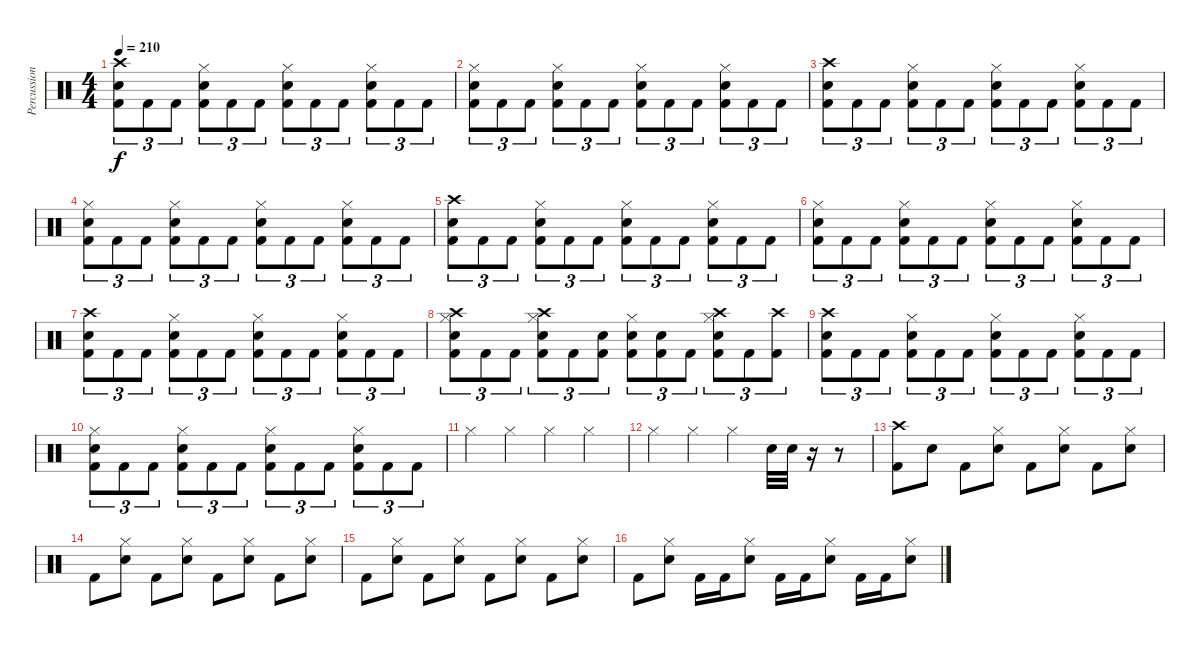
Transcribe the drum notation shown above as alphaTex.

\track ("Percussion" "Percussion") {instrument percussion}
\staff {score}
\articulation defaults
\ts (4 4)
\tempo 210
\clef neutral
\ks c
("Crash high (hit)" "Electric Snare (hit)" "Kick (hit) 2").8{tu (3 2) dy f} "Kick (hit) 2".8{tu (3 2)} "Kick (hit) 2".8{tu (3 2)} ("Hi-Hat (closed)" "Electric Snare (hit)" "Kick (hit) 2").8{tu (3 2)} "Kick (hit) 2".8{tu (3 2)} "Kick (hit) 2".8{tu (3 2)} ("Hi-Hat (closed)" "Electric Snare (hit)" "Kick (hit) 2").8{tu (3 2)} "Kick (hit) 2".8{tu (3 2)} "Kick (hit) 2".8{tu (3 2)} ("Hi-Hat (closed)" "Electric Snare (hit)" "Kick (hit) 2").8{tu (3 2)} "Kick (hit) 2".8{tu (3 2)} "Kick (hit) 2".8{tu (3 2)} |
("Hi-Hat (closed)" "Electric Snare (hit)" "Kick (hit) 2").8{tu (3 2)} "Kick (hit) 2".8{tu (3 2)} "Kick (hit) 2".8{tu (3 2)} ("Hi-Hat (closed)" "Electric Snare (hit)" "Kick (hit) 2").8{tu (3 2)} "Kick (hit) 2".8{tu (3 2)} "Kick (hit) 2".8{tu (3 2)} ("Hi-Hat (closed)" "Electric Snare (hit)" "Kick (hit) 2").8{tu (3 2)} "Kick (hit) 2".8{tu (3 2)} "Kick (hit) 2".8{tu (3 2)} ("Hi-Hat (closed)" "Electric Snare (hit)" "Kick (hit) 2").8{tu (3 2)} "Kick (hit) 2".8{tu (3 2)} "Kick (hit) 2".8{tu (3 2)} |
("Crash high (hit)" "Electric Snare (hit)" "Kick (hit) 2").8{tu (3 2)} "Kick (hit) 2".8{tu (3 2)} "Kick (hit) 2".8{tu (3 2)} ("Hi-Hat (closed)" "Electric Snare (hit)" "Kick (hit) 2").8{tu (3 2)} "Kick (hit) 2".8{tu (3 2)} "Kick (hit) 2".8{tu (3 2)} ("Hi-Hat (closed)" "Electric Snare (hit)" "Kick (hit) 2").8{tu (3 2)} "Kick (hit) 2".8{tu (3 2)} "Kick (hit) 2".8{tu (3 2)} ("Hi-Hat (closed)" "Electric Snare (hit)" "Kick (hit) 2").8{tu (3 2)} "Kick (hit) 2".8{tu (3 2)} "Kick (hit) 2".8{tu (3 2)} |
("Hi-Hat (closed)" "Electric Snare (hit)" "Kick (hit) 2").8{tu (3 2)} "Kick (hit) 2".8{tu (3 2)} "Kick (hit) 2".8{tu (3 2)} ("Hi-Hat (closed)" "Electric Snare (hit)" "Kick (hit) 2").8{tu (3 2)} "Kick (hit) 2".8{tu (3 2)} "Kick (hit) 2".8{tu (3 2)} ("Hi-Hat (closed)" "Electric Snare (hit)" "Kick (hit) 2").8{tu (3 2)} "Kick (hit) 2".8{tu (3 2)} "Kick (hit) 2".8{tu (3 2)} ("Hi-Hat (closed)" "Electric Snare (hit)" "Kick (hit) 2").8{tu (3 2)} "Kick (hit) 2".8{tu (3 2)} "Kick (hit) 2".8{tu (3 2)} |
("Crash high (hit)" "Electric Snare (hit)" "Kick (hit) 2").8{tu (3 2)} "Kick (hit) 2".8{tu (3 2)} "Kick (hit) 2".8{tu (3 2)} ("Hi-Hat (closed)" "Electric Snare (hit)" "Kick (hit) 2").8{tu (3 2)} "Kick (hit) 2".8{tu (3 2)} "Kick (hit) 2".8{tu (3 2)} ("Hi-Hat (closed)" "Electric Snare (hit)" "Kick (hit) 2").8{tu (3 2)} "Kick (hit) 2".8{tu (3 2)} "Kick (hit) 2".8{tu (3 2)} ("Hi-Hat (closed)" "Electric Snare (hit)" "Kick (hit) 2").8{tu (3 2)} "Kick (hit) 2".8{tu (3 2)} "Kick (hit) 2".8{tu (3 2)} |
("Hi-Hat (closed)" "Electric Snare (hit)" "Kick (hit) 2").8{tu (3 2)} "Kick (hit) 2".8{tu (3 2)} "Kick (hit) 2".8{tu (3 2)} ("Hi-Hat (closed)" "Electric Snare (hit)" "Kick (hit) 2").8{tu (3 2)} "Kick (hit) 2".8{tu (3 2)} "Kick (hit) 2".8{tu (3 2)} ("Hi-Hat (closed)" "Electric Snare (hit)" "Kick (hit) 2").8{tu (3 2)} "Kick (hit) 2".8{tu (3 2)} "Kick (hit) 2".8{tu (3 2)} ("Hi-Hat (closed)" "Electric Snare (hit)" "Kick (hit) 2").8{tu (3 2)} "Kick (hit) 2".8{tu (3 2)} "Kick (hit) 2".8{tu (3 2)} |
("Crash high (hit)" "Electric Snare (hit)" "Kick (hit) 2").8{tu (3 2)} "Kick (hit) 2".8{tu (3 2)} "Kick (hit) 2".8{tu (3 2)} ("Hi-Hat (closed)" "Electric Snare (hit)" "Kick (hit) 2").8{tu (3 2)} "Kick (hit) 2".8{tu (3 2)} "Kick (hit) 2".8{tu (3 2)} ("Hi-Hat (closed)" "Electric Snare (hit)" "Kick (hit) 2").8{tu (3 2)} "Kick (hit) 2".8{tu (3 2)} "Kick (hit) 2".8{tu (3 2)} ("Hi-Hat (closed)" "Electric Snare (hit)" "Kick (hit) 2").8{tu (3 2)} "Kick (hit) 2".8{tu (3 2)} "Kick (hit) 2".8{tu (3 2)} |
("Crash high (hit)" "Hi-Hat (closed)" "Electric Snare (hit)" "Kick (hit) 2").8{tu (3 2)} "Kick (hit) 2".8{tu (3 2)} "Kick (hit) 2".8{tu (3 2)} ("Crash high (hit)" "Hi-Hat (closed)" "Electric Snare (hit)" "Kick (hit) 2").8{tu (3 2)} "Kick (hit) 2".8{tu (3 2)} ("Electric Snare (hit)" "Kick (hit) 2").8{tu (3 2)} ("Hi-Hat (closed)" "Electric Snare (hit)" "Kick (hit) 2").8{tu (3 2)} ("Electric Snare (hit)" "Kick (hit) 2").8{tu (3 2)} "Kick (hit) 2".8{tu (3 2)} ("Crash high (hit)" "Hi-Hat (closed)" "Electric Snare (hit)" "Kick (hit) 2").8{tu (3 2)} "Kick (hit) 2".8{tu (3 2)} ("Crash high (hit)" "Kick (hit) 2").8{tu (3 2)} |
("Crash high (hit)" "Electric Snare (hit)" "Kick (hit) 2").8{tu (3 2)} "Kick (hit) 2".8{tu (3 2)} "Kick (hit) 2".8{tu (3 2)} ("Hi-Hat (closed)" "Electric Snare (hit)" "Kick (hit) 2").8{tu (3 2)} "Kick (hit) 2".8{tu (3 2)} "Kick (hit) 2".8{tu (3 2)} ("Hi-Hat (closed)" "Electric Snare (hit)" "Kick (hit) 2").8{tu (3 2)} "Kick (hit) 2".8{tu (3 2)} "Kick (hit) 2".8{tu (3 2)} ("Hi-Hat (closed)" "Electric Snare (hit)" "Kick (hit) 2").8{tu (3 2)} "Kick (hit) 2".8{tu (3 2)} "Kick (hit) 2".8{tu (3 2)} |
("Hi-Hat (closed)" "Electric Snare (hit)" "Kick (hit) 2").8{tu (3 2)} "Kick (hit) 2".8{tu (3 2)} "Kick (hit) 2".8{tu (3 2)} ("Hi-Hat (closed)" "Electric Snare (hit)" "Kick (hit) 2").8{tu (3 2)} "Kick (hit) 2".8{tu (3 2)} "Kick (hit) 2".8{tu (3 2)} ("Hi-Hat (closed)" "Electric Snare (hit)" "Kick (hit) 2").8{tu (3 2)} "Kick (hit) 2".8{tu (3 2)} "Kick (hit) 2".8{tu (3 2)} ("Hi-Hat (closed)" "Electric Snare (hit)" "Kick (hit) 2").8{tu (3 2)} "Kick (hit) 2".8{tu (3 2)} "Kick (hit) 2".8{tu (3 2)} |
"Hi-Hat (closed)".4 "Hi-Hat (closed)".4 "Hi-Hat (closed)".4 "Hi-Hat (closed)".4 |
"Hi-Hat (closed)".4 "Hi-Hat (closed)".4 "Hi-Hat (closed)".4 "Electric Snare (hit)".32 "Electric Snare (hit)".32 r.16 r.8 |
("Crash high (hit)" "Kick (hit) 2").8 "Electric Snare (hit)".8 "Kick (hit) 2".8 ("Hi-Hat (closed)" "Electric Snare (hit)").8 "Kick (hit) 2".8 ("Hi-Hat (closed)" "Electric Snare (hit)").8 "Kick (hit) 2".8 ("Hi-Hat (closed)" "Electric Snare (hit)").8 |
"Kick (hit) 2".8 ("Hi-Hat (closed)" "Electric Snare (hit)").8 "Kick (hit) 2".8 ("Hi-Hat (closed)" "Electric Snare (hit)").8 "Kick (hit) 2".8 ("Hi-Hat (closed)" "Electric Snare (hit)").8 "Kick (hit) 2".8 ("Hi-Hat (closed)" "Electric Snare (hit)").8 |
"Kick (hit) 2".8 ("Hi-Hat (closed)" "Electric Snare (hit)").8 "Kick (hit) 2".8 ("Hi-Hat (closed)" "Electric Snare (hit)").8 "Kick (hit) 2".8 ("Hi-Hat (closed)" "Electric Snare (hit)").8 "Kick (hit) 2".8 ("Hi-Hat (closed)" "Electric Snare (hit)").8 |
"Kick (hit) 2".8 ("Hi-Hat (closed)" "Electric Snare (hit)").8 "Kick (hit) 2".16 "Kick (hit) 2".16 ("Hi-Hat (closed)" "Electric Snare (hit)").8 "Kick (hit) 2".16 "Kick (hit) 2".16 ("Hi-Hat (closed)" "Electric Snare (hit)").8 "Kick (hit) 2".16 "Kick (hit) 2".16 ("Hi-Hat (closed)" "Electric Snare (hit)").8
